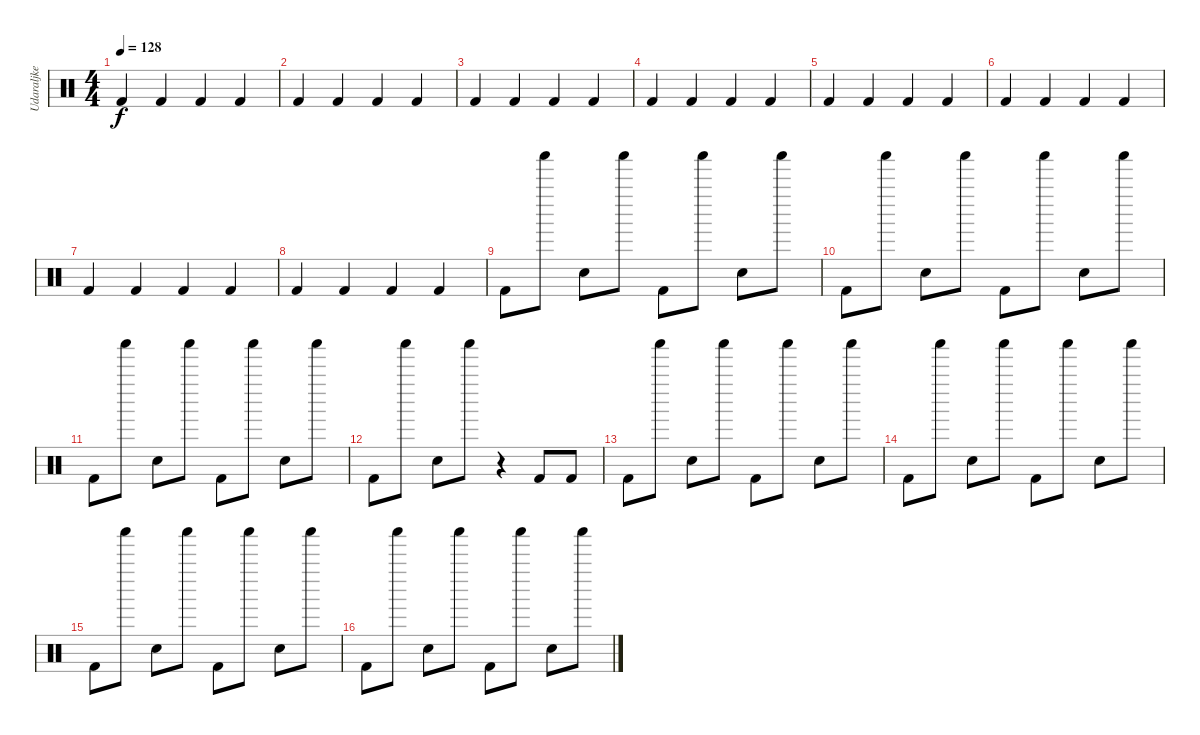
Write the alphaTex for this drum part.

\track ("Udaraljke" "Udaraljke") {instrument percussion}
\staff {score}
\articulation defaults
\ts (4 4)
\tempo 128
\clef neutral
\ks c "Kick (hit) 2".4{dy f} "Kick (hit) 2".4 "Kick (hit) 2".4 "Kick (hit) 2".4
|
"Kick (hit) 2".4 "Kick (hit) 2".4 "Kick (hit) 2".4 "Kick (hit) 2".4 |
"Kick (hit) 2".4 "Kick (hit) 2".4 "Kick (hit) 2".4 "Kick (hit) 2".4 |
"Kick (hit) 2".4 "Kick (hit) 2".4 "Kick (hit) 2".4 "Kick (hit) 2".4 |
"Kick (hit) 2".4 "Kick (hit) 2".4 "Kick (hit) 2".4 "Kick (hit) 2".4 |
"Kick (hit) 2".4 "Kick (hit) 2".4 "Kick (hit) 2".4 "Kick (hit) 2".4 |
"Kick (hit) 2".4 "Kick (hit) 2".4 "Kick (hit) 2".4 "Kick (hit) 2".4 |
"Kick (hit) 2".4 "Kick (hit) 2".4 "Kick (hit) 2".4 "Kick (hit) 2".4 |
"Kick (hit) 2".8 "Shaker (hit)".8 "Hand Clap (hit)".8 "Shaker (hit)".8 "Kick (hit) 2".8 "Shaker (hit)".8 "Hand Clap (hit)".8 "Shaker (hit)".8 |
"Kick (hit) 2".8 "Shaker (hit)".8 "Hand Clap (hit)".8 "Shaker (hit)".8 "Kick (hit) 2".8 "Shaker (hit)".8 "Hand Clap (hit)".8 "Shaker (hit)".8 |
"Kick (hit) 2".8 "Shaker (hit)".8 "Hand Clap (hit)".8 "Shaker (hit)".8 "Kick (hit) 2".8 "Shaker (hit)".8 "Hand Clap (hit)".8 "Shaker (hit)".8 |
"Kick (hit) 2".8 "Shaker (hit)".8 "Hand Clap (hit)".8 "Shaker (hit)".8 r.4 "Kick (hit) 2".8 "Kick (hit) 2".8 |
"Kick (hit) 2".8 "Shaker (hit)".8 "Hand Clap (hit)".8 "Shaker (hit)".8 "Kick (hit) 2".8 "Shaker (hit)".8 "Hand Clap (hit)".8 "Shaker (hit)".8 |
"Kick (hit) 2".8 "Shaker (hit)".8 "Hand Clap (hit)".8 "Shaker (hit)".8 "Kick (hit) 2".8 "Shaker (hit)".8 "Hand Clap (hit)".8 "Shaker (hit)".8 |
"Kick (hit) 2".8 "Shaker (hit)".8 "Hand Clap (hit)".8 "Shaker (hit)".8 "Kick (hit) 2".8 "Shaker (hit)".8 "Hand Clap (hit)".8 "Shaker (hit)".8 |
"Kick (hit) 2".8 "Shaker (hit)".8 "Hand Clap (hit)".8 "Shaker (hit)".8 "Kick (hit) 2".8 "Shaker (hit)".8 "Hand Clap (hit)".8 "Shaker (hit)".8
